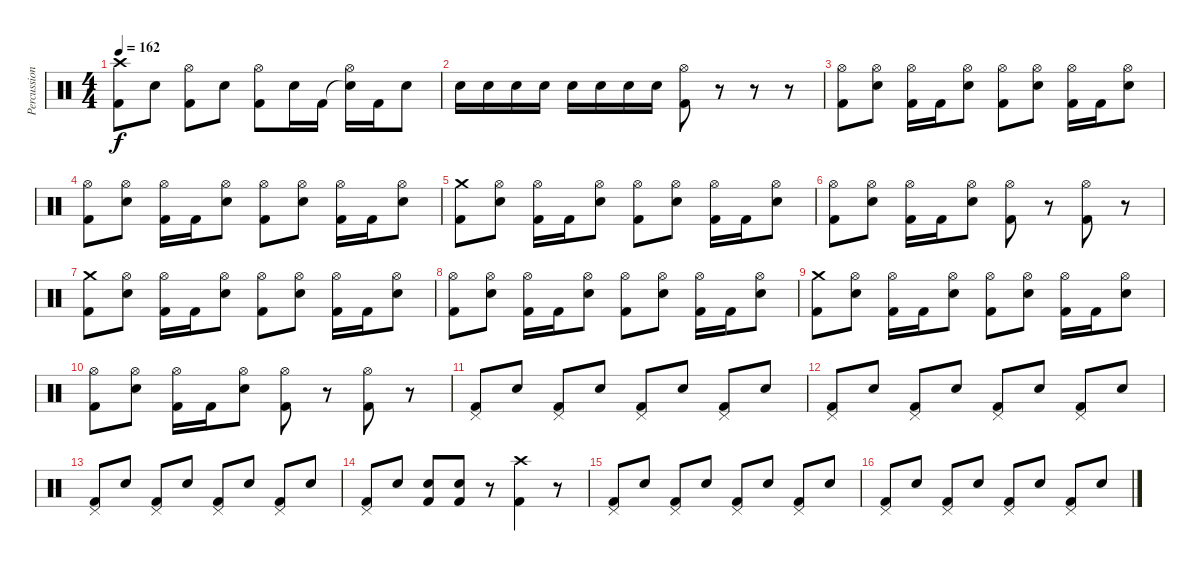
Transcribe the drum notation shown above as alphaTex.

\track ("Percussions" "Percussion") {instrument percussion}
\staff {score}
\articulation defaults
\ts (4 4)
\tempo 162
\clef neutral
\ks c
("Kick (hit) 2" "Crash high (hit)").8{dy f} "Electric Snare (hit)".8 ("Kick (hit) 2" "Hi-Hat (open)").8 "Electric Snare (hit)".8 ("Kick (hit) 2" "Hi-Hat (open)").8 "Electric Snare (hit)".16 "Kick (hit) 2".16 ("Snare (hit)"{t} "Hi-Hat (open)").16 "Kick (hit) 2".16 "Electric Snare (hit)".8 |
"Electric Snare (hit)".16 "Electric Snare (hit)".16 "Electric Snare (hit)".16 "Electric Snare (hit)".16 "Electric Snare (hit)".16 "Electric Snare (hit)".16 "Electric Snare (hit)".16 "Electric Snare (hit)".16 ("Kick (hit) 2" "Hi-Hat (open)").8 r.8 r.8 r.8 |
("Kick (hit) 2" "Hi-Hat (open)").8 ("Electric Snare (hit)" "Hi-Hat (open)").8 ("Kick (hit) 2" "Hi-Hat (open)").16 "Kick (hit) 2".16 ("Electric Snare (hit)" "Hi-Hat (open)").8 ("Kick (hit) 2" "Hi-Hat (open)").8 ("Electric Snare (hit)" "Hi-Hat (open)").8 ("Kick (hit) 2" "Hi-Hat (open)").16 "Kick (hit) 2".16 ("Electric Snare (hit)" "Hi-Hat (open)").8 |
("Kick (hit) 2" "Hi-Hat (open)").8 ("Electric Snare (hit)" "Hi-Hat (open)").8 ("Kick (hit) 2" "Hi-Hat (open)").16 "Kick (hit) 2".16 ("Electric Snare (hit)" "Hi-Hat (open)").8 ("Kick (hit) 2" "Hi-Hat (open)").8 ("Electric Snare (hit)" "Hi-Hat (open)").8 ("Kick (hit) 2" "Hi-Hat (open)").16 "Kick (hit) 2".16 ("Electric Snare (hit)" "Hi-Hat (open)").8 |
("Kick (hit) 2" "Crash medium (hit)").8 ("Electric Snare (hit)" "Hi-Hat (open)").8 ("Kick (hit) 2" "Hi-Hat (open)").16 "Kick (hit) 2".16 ("Electric Snare (hit)" "Hi-Hat (open)").8 ("Kick (hit) 2" "Hi-Hat (open)").8 ("Electric Snare (hit)" "Hi-Hat (open)").8 ("Kick (hit) 2" "Hi-Hat (open)").16 "Kick (hit) 2".16 ("Electric Snare (hit)" "Hi-Hat (open)").8 |
("Kick (hit) 2" "Hi-Hat (open)").8 ("Electric Snare (hit)" "Hi-Hat (open)").8 ("Kick (hit) 2" "Hi-Hat (open)").16 "Kick (hit) 2".16 ("Electric Snare (hit)" "Hi-Hat (open)").8 ("Kick (hit) 2" "Hi-Hat (open)").8 r.8 ("Kick (hit) 2" "Hi-Hat (open)").8 r.8 |
("Kick (hit) 2" "Crash medium (hit)").8 ("Electric Snare (hit)" "Hi-Hat (open)").8 ("Kick (hit) 2" "Hi-Hat (open)").16 "Kick (hit) 2".16 ("Electric Snare (hit)" "Hi-Hat (open)").8 ("Kick (hit) 2" "Hi-Hat (open)").8 ("Electric Snare (hit)" "Hi-Hat (open)").8 ("Kick (hit) 2" "Hi-Hat (open)").16 "Kick (hit) 2".16 ("Electric Snare (hit)" "Hi-Hat (open)").8 |
("Kick (hit) 2" "Hi-Hat (open)").8 ("Electric Snare (hit)" "Hi-Hat (open)").8 ("Kick (hit) 2" "Hi-Hat (open)").16 "Kick (hit) 2".16 ("Electric Snare (hit)" "Hi-Hat (open)").8 ("Kick (hit) 2" "Hi-Hat (open)").8 ("Electric Snare (hit)" "Hi-Hat (open)").8 ("Kick (hit) 2" "Hi-Hat (open)").16 "Kick (hit) 2".16 ("Electric Snare (hit)" "Hi-Hat (open)").8 |
("Kick (hit) 2" "Crash medium (hit)").8 ("Electric Snare (hit)" "Hi-Hat (open)").8 ("Kick (hit) 2" "Hi-Hat (open)").16 "Kick (hit) 2".16 ("Electric Snare (hit)" "Hi-Hat (open)").8 ("Kick (hit) 2" "Hi-Hat (open)").8 ("Electric Snare (hit)" "Hi-Hat (open)").8 ("Kick (hit) 2" "Hi-Hat (open)").16 "Kick (hit) 2".16 ("Electric Snare (hit)" "Hi-Hat (open)").8 |
("Kick (hit) 2" "Hi-Hat (open)").8 ("Electric Snare (hit)" "Hi-Hat (open)").8 ("Kick (hit) 2" "Hi-Hat (open)").16 "Kick (hit) 2".16 ("Electric Snare (hit)" "Hi-Hat (open)").8 ("Kick (hit) 2" "Hi-Hat (open)").8 r.8 ("Kick (hit) 2" "Hi-Hat (open)").8 r.8 |
("Kick (hit) 2" "Pedal Hi-Hat (hit)").8 "Electric Snare (hit)".8 ("Kick (hit) 2" "Pedal Hi-Hat (hit)").8 "Electric Snare (hit)".8 ("Kick (hit) 2" "Pedal Hi-Hat (hit)").8 "Electric Snare (hit)".8 ("Kick (hit) 2" "Pedal Hi-Hat (hit)").8 "Electric Snare (hit)".8 |
("Kick (hit) 2" "Pedal Hi-Hat (hit)").8 "Electric Snare (hit)".8 ("Kick (hit) 2" "Pedal Hi-Hat (hit)").8 "Electric Snare (hit)".8 ("Kick (hit) 2" "Pedal Hi-Hat (hit)").8 "Electric Snare (hit)".8 ("Kick (hit) 2" "Pedal Hi-Hat (hit)").8 "Electric Snare (hit)".8 |
("Kick (hit) 2" "Pedal Hi-Hat (hit)").8 "Electric Snare (hit)".8 ("Kick (hit) 2" "Pedal Hi-Hat (hit)").8 "Electric Snare (hit)".8 ("Kick (hit) 2" "Pedal Hi-Hat (hit)").8 "Electric Snare (hit)".8 ("Kick (hit) 2" "Pedal Hi-Hat (hit)").8 "Electric Snare (hit)".8 |
("Kick (hit) 2" "Pedal Hi-Hat (hit)").8 "Electric Snare (hit)".8 ("Kick (hit) 2" "Electric Snare (hit)").8 ("Kick (hit) 2" "Electric Snare (hit)").8 r.8 ("Kick (hit) 2" "Crash high (hit)").4 r.8 |
("Kick (hit) 2" "Pedal Hi-Hat (hit)").8 "Electric Snare (hit)".8 ("Kick (hit) 2" "Pedal Hi-Hat (hit)").8 "Electric Snare (hit)".8 ("Kick (hit) 2" "Pedal Hi-Hat (hit)").8 "Electric Snare (hit)".8 ("Kick (hit) 2" "Pedal Hi-Hat (hit)").8 "Electric Snare (hit)".8 |
("Kick (hit) 2" "Pedal Hi-Hat (hit)").8 "Electric Snare (hit)".8 ("Kick (hit) 2" "Pedal Hi-Hat (hit)").8 "Electric Snare (hit)".8 ("Kick (hit) 2" "Pedal Hi-Hat (hit)").8 "Electric Snare (hit)".8 ("Kick (hit) 2" "Pedal Hi-Hat (hit)").8 "Electric Snare (hit)".8
